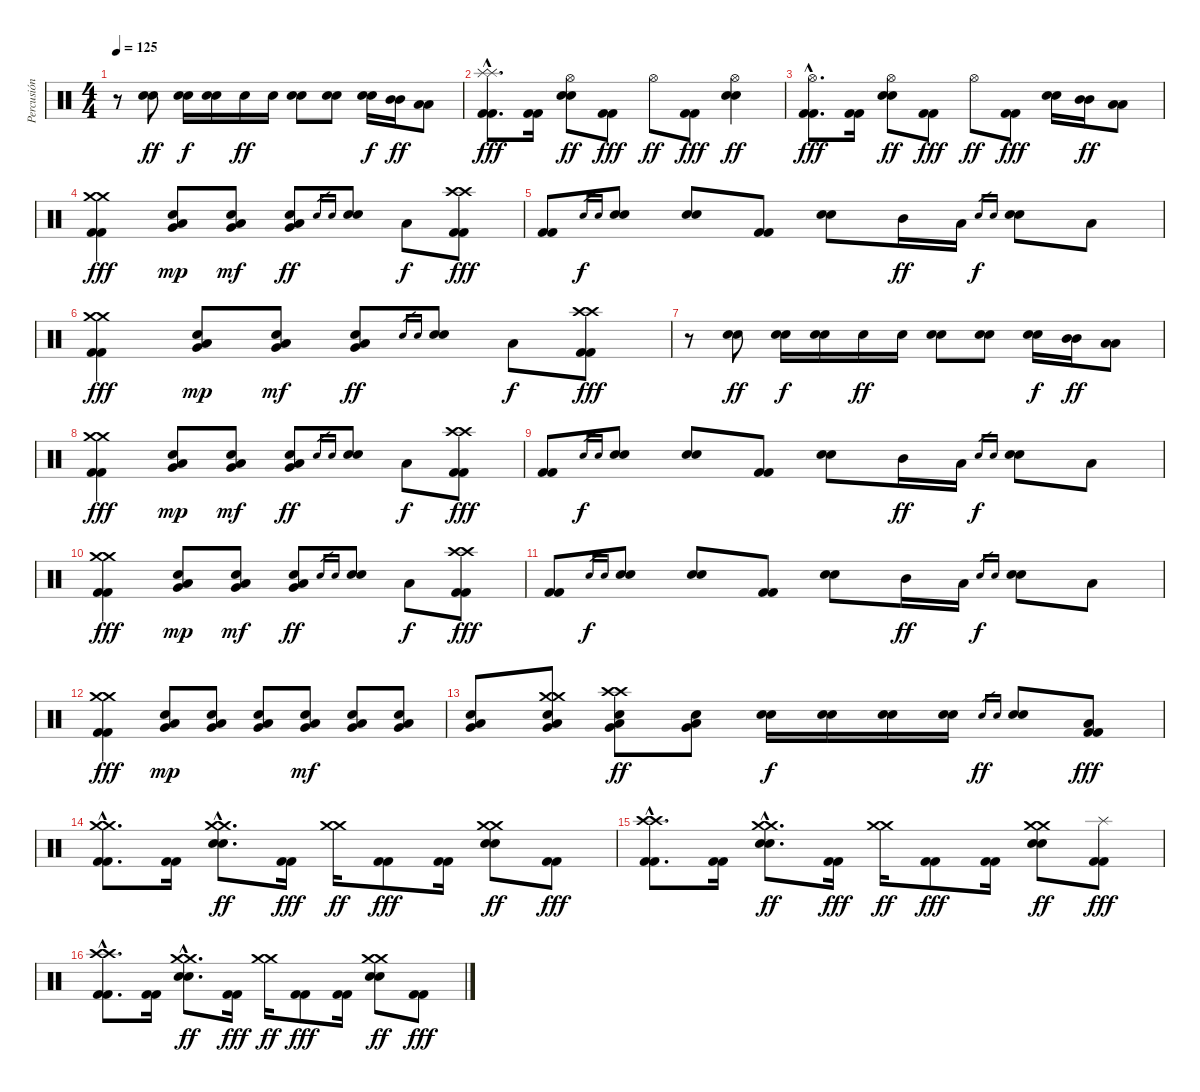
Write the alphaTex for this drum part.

\track ("Percusión" "Percusión") {instrument percussion}
\staff {score}
\articulation defaults
\ts (4 4)
\tempo 125
\clef neutral
\ks c
r.8{dy fff} ("Electric Snare (hit)" "Electric Snare (hit)").8{dy ff} ("Electric Snare (hit)" "Electric Snare (hit)").16{dy f} ("Electric Snare (hit)" "Electric Snare (hit)").16 "Electric Snare (hit)".16{dy ff} "Electric Snare (hit)".16 ("Electric Snare (hit)" "Electric Snare (hit)").8 ("Electric Snare (hit)" "Electric Snare (hit)").8 ("Electric Snare (hit)" "Electric Snare (hit)").16{dy f} ("Mid Tom (hit)" "Mid Tom (hit)").16{dy ff} ("Low Tom (hit)" "Low Tom (hit)").8 |
("Splash (hit)"{hac} "Splash (hit)"{hac} "Kick (hit) 2"{hac} "Kick (hit) 2"{hac}).8{d dy fff} ("Kick (hit) 2" "Kick (hit) 2").16 ("Hi-Hat (open)" "Electric Snare (hit)" "Electric Snare (hit)").8{dy ff} ("Kick (hit) 2" "Kick (hit) 2").8{dy fff} "Hi-Hat (open)".8{dy ff} ("Kick (hit) 2" "Kick (hit) 2").8{dy fff} ("Hi-Hat (open)" "Electric Snare (hit)" "Electric Snare (hit)").4{dy ff} |
("Hi-Hat (open)"{hac} "Kick (hit) 2"{hac} "Kick (hit) 2"{hac}).8{d dy fff} ("Kick (hit) 2" "Kick (hit) 2").16 ("Hi-Hat (open)" "Electric Snare (hit)" "Electric Snare (hit)").8{dy ff} ("Kick (hit) 2" "Kick (hit) 2").8{dy fff} "Hi-Hat (open)".8{dy ff} ("Kick (hit) 2" "Kick (hit) 2").8{dy fff} ("Electric Snare (hit)" "Electric Snare (hit)").16 ("Mid Tom (hit)" "Mid Tom (hit)").16{dy ff} ("Low Tom (hit)" "Low Tom (hit)").8 |
("Crash medium (hit)" "Crash medium (hit)" "Kick (hit) 2" "Kick (hit) 2").4{dy fff} ("Electric Snare (hit)" "Low Tom (hit)" "Very Low Tom (hit)").8{dy mp} ("Electric Snare (hit)" "Low Tom (hit)" "Very Low Tom (hit)").8{dy mf} ("Electric Snare (hit)" "Low Tom (hit)" "Very Low Tom (hit)").8{dy ff} "Electric Snare (hit)".16{gr} "Electric Snare (hit)".16{gr} ("Electric Snare (hit)" "Electric Snare (hit)").8 "Low Tom (hit)".8{dy f} ("Crash high (hit)" "Crash high (hit)" "Kick (hit) 2" "Kick (hit) 2").8{dy fff} |
("Kick (hit) 2" "Kick (hit) 2").8 "Electric Snare (hit)".16{gr dy f} "Electric Snare (hit)".16{gr} ("Electric Snare (hit)" "Electric Snare (hit)").8 ("Electric Snare (hit)" "Electric Snare (hit)").8 ("Kick (hit) 2" "Kick (hit) 2").8 ("Electric Snare (hit)" "Electric Snare (hit)").8 "Mid Tom (hit)".16{dy ff} "Low Tom (hit)".16 "Electric Snare (hit)".16{gr dy f} "Electric Snare (hit)".16{gr} ("Electric Snare (hit)" "Electric Snare (hit)").8 "Low Tom (hit)".8 |
("Crash medium (hit)" "Crash medium (hit)" "Kick (hit) 2" "Kick (hit) 2").4{dy fff} ("Electric Snare (hit)" "Low Tom (hit)" "Very Low Tom (hit)").8{dy mp} ("Electric Snare (hit)" "Low Tom (hit)" "Very Low Tom (hit)").8{dy mf} ("Electric Snare (hit)" "Low Tom (hit)" "Very Low Tom (hit)").8{dy ff} "Electric Snare (hit)".16{gr} "Electric Snare (hit)".16{gr} ("Electric Snare (hit)" "Electric Snare (hit)").8 "Low Tom (hit)".8{dy f} ("Crash high (hit)" "Crash high (hit)" "Kick (hit) 2" "Kick (hit) 2").8{dy fff} |
r.8 ("Electric Snare (hit)" "Electric Snare (hit)").8{dy ff} ("Electric Snare (hit)" "Electric Snare (hit)").16{dy f} ("Electric Snare (hit)" "Electric Snare (hit)").16 "Electric Snare (hit)".16{dy ff} "Electric Snare (hit)".16 ("Electric Snare (hit)" "Electric Snare (hit)").8 ("Electric Snare (hit)" "Electric Snare (hit)").8 ("Electric Snare (hit)" "Electric Snare (hit)").16{dy f} ("Mid Tom (hit)" "Mid Tom (hit)").16{dy ff} ("Low Tom (hit)" "Low Tom (hit)").8 |
("Crash medium (hit)" "Crash medium (hit)" "Kick (hit) 2" "Kick (hit) 2").4{dy fff} ("Electric Snare (hit)" "Low Tom (hit)" "Very Low Tom (hit)").8{dy mp} ("Electric Snare (hit)" "Low Tom (hit)" "Very Low Tom (hit)").8{dy mf} ("Electric Snare (hit)" "Low Tom (hit)" "Very Low Tom (hit)").8{dy ff} "Electric Snare (hit)".16{gr} "Electric Snare (hit)".16{gr} ("Electric Snare (hit)" "Electric Snare (hit)").8 "Low Tom (hit)".8{dy f} ("Crash high (hit)" "Crash high (hit)" "Kick (hit) 2" "Kick (hit) 2").8{dy fff} |
("Kick (hit) 2" "Kick (hit) 2").8 "Electric Snare (hit)".16{gr dy f} "Electric Snare (hit)".16{gr} ("Electric Snare (hit)" "Electric Snare (hit)").8 ("Electric Snare (hit)" "Electric Snare (hit)").8 ("Kick (hit) 2" "Kick (hit) 2").8 ("Electric Snare (hit)" "Electric Snare (hit)").8 "Mid Tom (hit)".16{dy ff} "Low Tom (hit)".16 "Electric Snare (hit)".16{gr dy f} "Electric Snare (hit)".16{gr} ("Electric Snare (hit)" "Electric Snare (hit)").8 "Low Tom (hit)".8 |
("Crash medium (hit)" "Crash medium (hit)" "Kick (hit) 2" "Kick (hit) 2").4{dy fff} ("Electric Snare (hit)" "Low Tom (hit)" "Very Low Tom (hit)").8{dy mp} ("Electric Snare (hit)" "Low Tom (hit)" "Very Low Tom (hit)").8{dy mf} ("Electric Snare (hit)" "Low Tom (hit)" "Very Low Tom (hit)").8{dy ff} "Electric Snare (hit)".16{gr} "Electric Snare (hit)".16{gr} ("Electric Snare (hit)" "Electric Snare (hit)").8 "Low Tom (hit)".8{dy f} ("Crash high (hit)" "Crash high (hit)" "Kick (hit) 2" "Kick (hit) 2").8{dy fff} |
("Kick (hit) 2" "Kick (hit) 2").8 "Electric Snare (hit)".16{gr dy f} "Electric Snare (hit)".16{gr} ("Electric Snare (hit)" "Electric Snare (hit)").8 ("Electric Snare (hit)" "Electric Snare (hit)").8 ("Kick (hit) 2" "Kick (hit) 2").8 ("Electric Snare (hit)" "Electric Snare (hit)").8 "Mid Tom (hit)".16{dy ff} "Low Tom (hit)".16 "Electric Snare (hit)".16{gr dy f} "Electric Snare (hit)".16{gr} ("Electric Snare (hit)" "Electric Snare (hit)").8 "Low Tom (hit)".8 |
("Crash medium (hit)" "Crash medium (hit)" "Kick (hit) 2" "Kick (hit) 2").4{dy fff} ("Electric Snare (hit)" "Low Tom (hit)" "Very Low Tom (hit)").8{dy mp} ("Electric Snare (hit)" "Low Tom (hit)" "Very Low Tom (hit)").8 ("Electric Snare (hit)" "Low Tom (hit)" "Very Low Tom (hit)").8 ("Electric Snare (hit)" "Low Tom (hit)" "Very Low Tom (hit)").8{dy mf} ("Electric Snare (hit)" "Low Tom (hit)" "Very Low Tom (hit)").8 ("Electric Snare (hit)" "Low Tom (hit)" "Very Low Tom (hit)").8 |
("Electric Snare (hit)" "Low Tom (hit)" "Very Low Tom (hit)").8 ("Crash medium (hit)" "Crash medium (hit)" "Electric Snare (hit)" "Low Tom (hit)" "Very Low Tom (hit)").8 ("Crash high (hit)" "Crash high (hit)" "Electric Snare (hit)" "Low Tom (hit)" "Very Low Tom (hit)").8{dy ff} ("Electric Snare (hit)" "Low Tom (hit)" "Very Low Tom (hit)").8 ("Electric Snare (hit)" "Electric Snare (hit)").16{dy f} ("Electric Snare (hit)" "Electric Snare (hit)").16 ("Electric Snare (hit)" "Electric Snare (hit)").16 ("Electric Snare (hit)" "Electric Snare (hit)").16 "Electric Snare (hit)".16{gr dy ff} "Electric Snare (hit)".16{gr} ("Electric Snare (hit)" "Electric Snare (hit)").8 ("Low Tom (hit)" "Kick (hit) 2" "Kick (hit) 2").8{dy fff} |
("Crash medium (hit)"{hac} "Crash medium (hit)"{hac} "Kick (hit) 2"{hac} "Kick (hit) 2"{hac}).8{d} ("Kick (hit) 2" "Kick (hit) 2").16 ("Crash medium (hit)"{hac} "Crash medium (hit)"{hac} "Electric Snare (hit)"{hac} "Electric Snare (hit)"{hac}).8{d dy ff} ("Kick (hit) 2" "Kick (hit) 2").16{dy fff} ("Crash medium (hit)" "Crash medium (hit)").16{dy ff} ("Kick (hit) 2" "Kick (hit) 2").8{dy fff} ("Kick (hit) 2" "Kick (hit) 2").16 ("Crash medium (hit)" "Crash medium (hit)" "Electric Snare (hit)" "Electric Snare (hit)").8{dy ff} ("Kick (hit) 2" "Kick (hit) 2").8{dy fff} |
("Crash high (hit)"{hac} "Crash high (hit)"{hac} "Kick (hit) 2"{hac} "Kick (hit) 2"{hac}).8{d} ("Kick (hit) 2" "Kick (hit) 2").16 ("Crash medium (hit)"{hac} "Crash medium (hit)"{hac} "Electric Snare (hit)"{hac} "Electric Snare (hit)"{hac}).8{d dy ff} ("Kick (hit) 2" "Kick (hit) 2").16{dy fff} ("Crash medium (hit)" "Crash medium (hit)").16{dy ff} ("Kick (hit) 2" "Kick (hit) 2").8{dy fff} ("Kick (hit) 2" "Kick (hit) 2").16 ("Crash medium (hit)" "Crash medium (hit)" "Electric Snare (hit)" "Electric Snare (hit)").8{dy ff} ("Splash (hit)" "Kick (hit) 2" "Kick (hit) 2").8{dy fff} |
("Crash high (hit)"{hac} "Crash high (hit)"{hac} "Kick (hit) 2"{hac} "Kick (hit) 2"{hac}).8{d} ("Kick (hit) 2" "Kick (hit) 2").16 ("Crash medium (hit)"{hac} "Crash medium (hit)"{hac} "Electric Snare (hit)"{hac} "Electric Snare (hit)"{hac}).8{d dy ff} ("Kick (hit) 2" "Kick (hit) 2").16{dy fff} ("Crash medium (hit)" "Crash medium (hit)").16{dy ff} ("Kick (hit) 2" "Kick (hit) 2").8{dy fff} ("Kick (hit) 2" "Kick (hit) 2").16 ("Crash medium (hit)" "Crash medium (hit)" "Electric Snare (hit)" "Electric Snare (hit)").8{dy ff} ("Kick (hit) 2" "Kick (hit) 2").8{dy fff}
